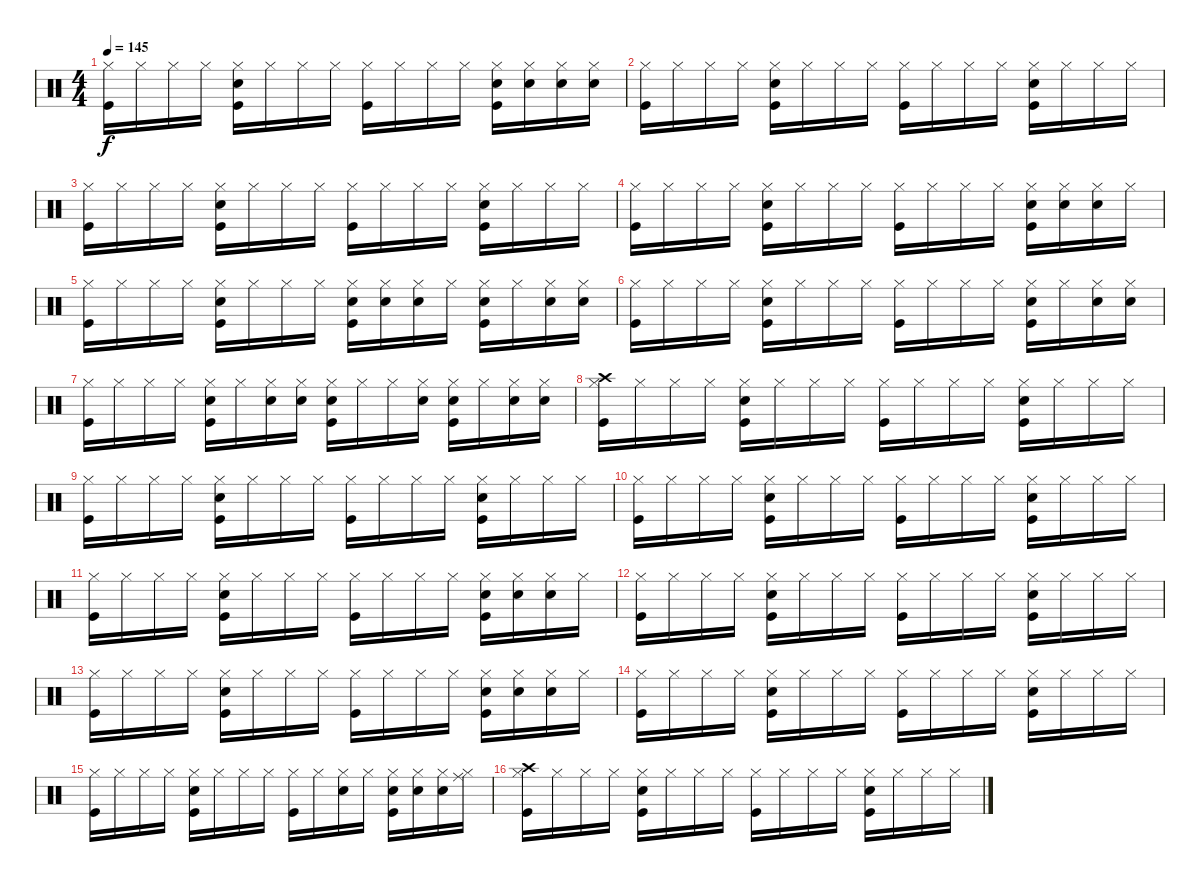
\track "" {instrument percussion}
\staff {score}
\articulation defaults
\ts (4 4)
\tempo 145
\clef neutral
\ks c
("Hi-Hat (closed)" "Kick (hit)").16{dy f} "Hi-Hat (closed)".16 "Hi-Hat (closed)".16 "Hi-Hat (closed)".16 ("Snare (hit) 2" "Hi-Hat (closed)" "Kick (hit)").16 "Hi-Hat (closed)".16 "Hi-Hat (closed)".16 "Hi-Hat (closed)".16 ("Hi-Hat (closed)" "Kick (hit)").16 "Hi-Hat (closed)".16 "Hi-Hat (closed)".16 "Hi-Hat (closed)".16 ("Snare (hit) 2" "Hi-Hat (closed)" "Kick (hit)").16 ("Snare (hit) 2" "Hi-Hat (closed)").16 ("Snare (hit) 2" "Hi-Hat (closed)").16 ("Snare (hit) 2" "Hi-Hat (closed)").16 |
("Hi-Hat (closed)" "Kick (hit)").16 "Hi-Hat (closed)".16 "Hi-Hat (closed)".16 "Hi-Hat (closed)".16 ("Snare (hit) 2" "Hi-Hat (closed)" "Kick (hit)").16 "Hi-Hat (closed)".16 "Hi-Hat (closed)".16 "Hi-Hat (closed)".16 ("Hi-Hat (closed)" "Kick (hit)").16 "Hi-Hat (closed)".16 "Hi-Hat (closed)".16 "Hi-Hat (closed)".16 ("Snare (hit) 2" "Hi-Hat (closed)" "Kick (hit)").16 "Hi-Hat (closed)".16 "Hi-Hat (closed)".16 "Hi-Hat (closed)".16 |
("Hi-Hat (closed)" "Kick (hit)").16 "Hi-Hat (closed)".16 "Hi-Hat (closed)".16 "Hi-Hat (closed)".16 ("Snare (hit) 2" "Hi-Hat (closed)" "Kick (hit)").16 "Hi-Hat (closed)".16 "Hi-Hat (closed)".16 "Hi-Hat (closed)".16 ("Hi-Hat (closed)" "Kick (hit)").16 "Hi-Hat (closed)".16 "Hi-Hat (closed)".16 "Hi-Hat (closed)".16 ("Snare (hit) 2" "Hi-Hat (closed)" "Kick (hit)").16 "Hi-Hat (closed)".16 "Hi-Hat (closed)".16 "Hi-Hat (closed)".16 |
("Hi-Hat (closed)" "Kick (hit)").16 "Hi-Hat (closed)".16 "Hi-Hat (closed)".16 "Hi-Hat (closed)".16 ("Snare (hit) 2" "Hi-Hat (closed)" "Kick (hit)").16 "Hi-Hat (closed)".16 "Hi-Hat (closed)".16 "Hi-Hat (closed)".16 ("Hi-Hat (closed)" "Kick (hit)").16 "Hi-Hat (closed)".16 "Hi-Hat (closed)".16 "Hi-Hat (closed)".16 ("Snare (hit) 2" "Hi-Hat (closed)" "Kick (hit)").16 ("Snare (hit) 2" "Hi-Hat (closed)").16 ("Snare (hit) 2" "Hi-Hat (closed)").16 "Hi-Hat (closed)".16 |
("Hi-Hat (closed)" "Kick (hit)").16 "Hi-Hat (closed)".16 "Hi-Hat (closed)".16 "Hi-Hat (closed)".16 ("Snare (hit) 2" "Hi-Hat (closed)" "Kick (hit)").16 "Hi-Hat (closed)".16 "Hi-Hat (closed)".16 "Hi-Hat (closed)".16 ("Snare (hit) 2" "Hi-Hat (closed)" "Kick (hit)").16 ("Snare (hit) 2" "Hi-Hat (closed)").16 ("Snare (hit) 2" "Hi-Hat (closed)").16 "Hi-Hat (closed)".16 ("Snare (hit) 2" "Hi-Hat (closed)" "Kick (hit)").16 "Hi-Hat (closed)".16 ("Snare (hit) 2" "Hi-Hat (closed)").16 ("Snare (hit) 2" "Hi-Hat (closed)").16 |
("Hi-Hat (closed)" "Kick (hit)").16 "Hi-Hat (closed)".16 "Hi-Hat (closed)".16 "Hi-Hat (closed)".16 ("Snare (hit) 2" "Hi-Hat (closed)" "Kick (hit)").16 "Hi-Hat (closed)".16 "Hi-Hat (closed)".16 "Hi-Hat (closed)".16 ("Hi-Hat (closed)" "Kick (hit)").16 "Hi-Hat (closed)".16 "Hi-Hat (closed)".16 "Hi-Hat (closed)".16 ("Snare (hit) 2" "Hi-Hat (closed)" "Kick (hit)").16 "Hi-Hat (closed)".16 ("Snare (hit) 2" "Hi-Hat (closed)").16 ("Snare (hit) 2" "Hi-Hat (closed)").16 |
("Hi-Hat (closed)" "Kick (hit)").16 "Hi-Hat (closed)".16 "Hi-Hat (closed)".16 "Hi-Hat (closed)".16 ("Snare (hit) 2" "Hi-Hat (closed)" "Kick (hit)").16 "Hi-Hat (closed)".16 ("Snare (hit) 2" "Hi-Hat (closed)").16 ("Snare (hit) 2" "Hi-Hat (closed)").16 ("Snare (hit) 2" "Hi-Hat (closed)" "Kick (hit)").16 "Hi-Hat (closed)".16 "Hi-Hat (closed)".16 ("Snare (hit) 2" "Hi-Hat (closed)").16 ("Snare (hit) 2" "Hi-Hat (closed)" "Kick (hit)").16 "Hi-Hat (closed)".16 ("Snare (hit) 2" "Hi-Hat (closed)").16 ("Snare (hit) 2" "Hi-Hat (closed)").16 |
("Crash high (hit)" "Hi-Hat (closed)" "Kick (hit)").16 "Hi-Hat (closed)".16 "Hi-Hat (closed)".16 "Hi-Hat (closed)".16 ("Snare (hit) 2" "Hi-Hat (closed)" "Kick (hit)").16 "Hi-Hat (closed)".16 "Hi-Hat (closed)".16 "Hi-Hat (closed)".16 ("Hi-Hat (closed)" "Kick (hit)").16 "Hi-Hat (closed)".16 "Hi-Hat (closed)".16 "Hi-Hat (closed)".16 ("Snare (hit) 2" "Hi-Hat (closed)" "Kick (hit)").16 "Hi-Hat (closed)".16 "Hi-Hat (closed)".16 "Hi-Hat (closed)".16 |
("Hi-Hat (closed)" "Kick (hit)").16 "Hi-Hat (closed)".16 "Hi-Hat (closed)".16 "Hi-Hat (closed)".16 ("Snare (hit) 2" "Hi-Hat (closed)" "Kick (hit)").16 "Hi-Hat (closed)".16 "Hi-Hat (closed)".16 "Hi-Hat (closed)".16 ("Hi-Hat (closed)" "Kick (hit)").16 "Hi-Hat (closed)".16 "Hi-Hat (closed)".16 "Hi-Hat (closed)".16 ("Snare (hit) 2" "Hi-Hat (closed)" "Kick (hit)").16 "Hi-Hat (closed)".16 "Hi-Hat (closed)".16 "Hi-Hat (closed)".16 |
("Hi-Hat (closed)" "Kick (hit)").16 "Hi-Hat (closed)".16 "Hi-Hat (closed)".16 "Hi-Hat (closed)".16 ("Snare (hit) 2" "Hi-Hat (closed)" "Kick (hit)").16 "Hi-Hat (closed)".16 "Hi-Hat (closed)".16 "Hi-Hat (closed)".16 ("Hi-Hat (closed)" "Kick (hit)").16 "Hi-Hat (closed)".16 "Hi-Hat (closed)".16 "Hi-Hat (closed)".16 ("Snare (hit) 2" "Hi-Hat (closed)" "Kick (hit)").16 "Hi-Hat (closed)".16 "Hi-Hat (closed)".16 "Hi-Hat (closed)".16 |
("Hi-Hat (closed)" "Kick (hit)").16 "Hi-Hat (closed)".16 "Hi-Hat (closed)".16 "Hi-Hat (closed)".16 ("Snare (hit) 2" "Hi-Hat (closed)" "Kick (hit)").16 "Hi-Hat (closed)".16 "Hi-Hat (closed)".16 "Hi-Hat (closed)".16 ("Hi-Hat (closed)" "Kick (hit)").16 "Hi-Hat (closed)".16 "Hi-Hat (closed)".16 "Hi-Hat (closed)".16 ("Snare (hit) 2" "Hi-Hat (closed)" "Kick (hit)").16 ("Snare (hit) 2" "Hi-Hat (closed)").16 ("Snare (hit) 2" "Hi-Hat (closed)").16 "Hi-Hat (closed)".16 |
("Hi-Hat (closed)" "Kick (hit)").16 "Hi-Hat (closed)".16 "Hi-Hat (closed)".16 "Hi-Hat (closed)".16 ("Snare (hit) 2" "Hi-Hat (closed)" "Kick (hit)").16 "Hi-Hat (closed)".16 "Hi-Hat (closed)".16 "Hi-Hat (closed)".16 ("Hi-Hat (closed)" "Kick (hit)").16 "Hi-Hat (closed)".16 "Hi-Hat (closed)".16 "Hi-Hat (closed)".16 ("Snare (hit) 2" "Hi-Hat (closed)" "Kick (hit)").16 "Hi-Hat (closed)".16 "Hi-Hat (closed)".16 "Hi-Hat (closed)".16 |
("Hi-Hat (closed)" "Kick (hit)").16 "Hi-Hat (closed)".16 "Hi-Hat (closed)".16 "Hi-Hat (closed)".16 ("Snare (hit) 2" "Hi-Hat (closed)" "Kick (hit)").16 "Hi-Hat (closed)".16 "Hi-Hat (closed)".16 "Hi-Hat (closed)".16 ("Hi-Hat (closed)" "Kick (hit)").16 "Hi-Hat (closed)".16 "Hi-Hat (closed)".16 "Hi-Hat (closed)".16 ("Snare (hit) 2" "Hi-Hat (closed)" "Kick (hit)").16 ("Snare (hit) 2" "Hi-Hat (closed)").16 ("Snare (hit) 2" "Hi-Hat (closed)").16 "Hi-Hat (closed)".16 |
("Hi-Hat (closed)" "Kick (hit)").16 "Hi-Hat (closed)".16 "Hi-Hat (closed)".16 "Hi-Hat (closed)".16 ("Snare (hit) 2" "Hi-Hat (closed)" "Kick (hit)").16 "Hi-Hat (closed)".16 "Hi-Hat (closed)".16 "Hi-Hat (closed)".16 ("Hi-Hat (closed)" "Kick (hit)").16 "Hi-Hat (closed)".16 "Hi-Hat (closed)".16 "Hi-Hat (closed)".16 ("Snare (hit) 2" "Hi-Hat (closed)" "Kick (hit)").16 "Hi-Hat (closed)".16 "Hi-Hat (closed)".16 "Hi-Hat (closed)".16 |
("Hi-Hat (closed)" "Kick (hit)").16 "Hi-Hat (closed)".16 "Hi-Hat (closed)".16 "Hi-Hat (closed)".16 ("Snare (hit) 2" "Hi-Hat (closed)" "Kick (hit)").16 "Hi-Hat (closed)".16 "Hi-Hat (closed)".16 "Hi-Hat (closed)".16 ("Hi-Hat (closed)" "Kick (hit)").16 "Hi-Hat (closed)".16 ("Snare (hit) 2" "Hi-Hat (closed)").16 "Hi-Hat (closed)".16 ("Snare (hit) 2" "Hi-Hat (closed)" "Kick (hit)").16 ("Snare (hit) 2" "Hi-Hat (closed)").16 ("Snare (hit) 2" "Hi-Hat (closed)").16 ("Ride (middle)" "Hi-Hat (closed)").16 |
("Crash high (hit)" "Hi-Hat (closed)" "Kick (hit)").16 "Hi-Hat (closed)".16 "Hi-Hat (closed)".16 "Hi-Hat (closed)".16 ("Snare (hit) 2" "Hi-Hat (closed)" "Kick (hit)").16 "Hi-Hat (closed)".16 "Hi-Hat (closed)".16 "Hi-Hat (closed)".16 ("Hi-Hat (closed)" "Kick (hit)").16 "Hi-Hat (closed)".16 "Hi-Hat (closed)".16 "Hi-Hat (closed)".16 ("Snare (hit) 2" "Hi-Hat (closed)" "Kick (hit)").16 "Hi-Hat (closed)".16 "Hi-Hat (closed)".16 "Hi-Hat (closed)".16
